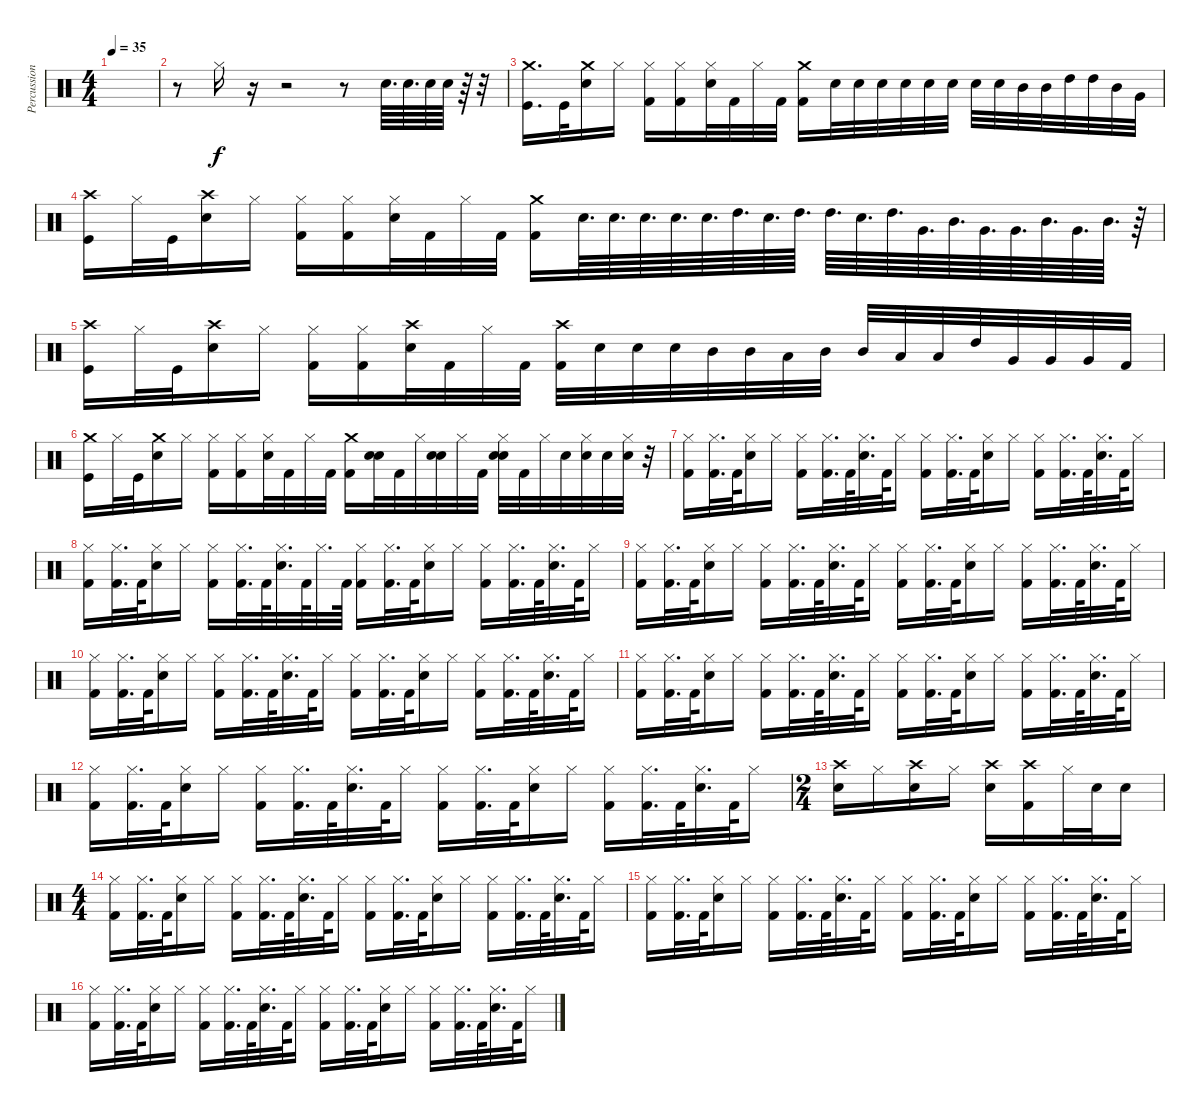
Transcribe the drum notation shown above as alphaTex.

\track ("Percussion" "Percussion") {instrument percussion}
\staff {score}
\articulation defaults
\ts (4 4)
\tempo 35
\clef neutral
\ks c
|
r.8 "Hi-Hat (closed)".16 r.16 r.2 r.8 "Snare (hit) 2".64{d} "Snare (hit) 2".64{d} "Snare (hit) 2".64 "Snare (hit) 2".64 r.64 r.32 |
("Crash medium (hit)" "Kick (hit)").16{d} "Kick (hit)".32 ("Crash medium (hit)" "Snare (hit) 2").16 "Hi-Hat (closed)".16 ("Hi-Hat (closed)" "Kick (hit) 2").16 ("Hi-Hat (closed)" "Kick (hit) 2").16 ("Hi-Hat (closed)" "Snare (hit) 2").32 "Kick (hit) 2".32 "Hi-Hat (closed)".32 "Kick (hit) 2".32 ("Crash medium (hit)" "Kick (hit) 2").16 "Snare (hit) 2".32 "Snare (hit) 2".32 "Snare (hit) 2".32 "Snare (hit) 2".32 "Snare (hit) 2".32 "Snare (hit) 2".32 "Snare (hit) 2".32 "Snare (hit) 2".32 "Mid Tom (hit)".32 "Mid Tom (hit)".32 "High Tom (hit)".32 "High Tom (hit)".32 "Mid Tom (hit)".32 "Very Low Tom (hit)".32 |
("Crash high (hit)" "Kick (hit)").16 "Hi-Hat (closed)".32 "Kick (hit)".32 ("Crash high (hit)" "Snare (hit) 2").16 "Hi-Hat (closed)".16 ("Hi-Hat (closed)" "Kick (hit) 2").16 ("Hi-Hat (closed)" "Kick (hit) 2").16 ("Hi-Hat (closed)" "Snare (hit) 2").32 "Kick (hit) 2".32 "Hi-Hat (closed)".32 "Kick (hit) 2".32 ("Crash medium (hit)" "Kick (hit) 2").16 "Snare (hit) 2".64{d} "Snare (hit) 2".64{d} "Snare (hit) 2".64{d} "Snare (hit) 2".64{d} "Snare (hit) 2".64{d} "High Tom (hit)".64{d} "Snare (hit) 2".64{d} "High Tom (hit)".64{d} "High Tom (hit)".64{d} "Snare (hit) 2".64{d} "High Tom (hit)".64{d} "Very Low Tom (hit)".64{d} "Mid Tom (hit)".64{d} "Very Low Tom (hit)".64{d} "Very Low Tom (hit)".64{d} "Mid Tom (hit)".64{d} "Very Low Tom (hit)".64{d} "Mid Tom (hit)".64{d} r.64 |
("Crash high (hit)" "Kick (hit)").16 "Hi-Hat (closed)".32 "Kick (hit)".32 ("Crash high (hit)" "Snare (hit) 2").16 "Hi-Hat (closed)".16 ("Hi-Hat (closed)" "Kick (hit) 2").16 ("Hi-Hat (closed)" "Kick (hit) 2").16 ("Crash high (hit)" "Snare (hit) 2").32 "Kick (hit) 2".32 "Hi-Hat (closed)".32 "Kick (hit) 2".32 ("Crash high (hit)" "Kick (hit) 2").32 "Snare (hit) 2".32 "Snare (hit) 2".32 "Snare (hit) 2".32 "Mid Tom (hit)".32 "Mid Tom (hit)".32 "Low Tom (hit)".32 "Mid Tom (hit)".32 "Mid Tom (hit)".32 "Low Tom (hit)".32 "Low Tom (hit)".32 "High Tom (hit)".32 "Very Low Tom (hit)".32 "Very Low Tom (hit)".32 "Very Low Tom (hit)".32 "Kick (hit) 2".32 |
("Crash medium (hit)" "Kick (hit)").16 "Hi-Hat (closed)".32 "Kick (hit)".32 ("Crash medium (hit)" "Snare (hit) 2").16 "Hi-Hat (closed)".16 ("Hi-Hat (closed)" "Kick (hit) 2").16 ("Hi-Hat (closed)" "Kick (hit) 2").16 ("Hi-Hat (closed)" "Snare (hit) 2").32 "Kick (hit) 2".32 "Hi-Hat (closed)".32 "Kick (hit) 2".32 ("Crash medium (hit)" "Kick (hit) 2").16 ("Snare (hit) 2" "Electric Snare (hit)").32 "Kick (hit) 2".32 "Hi-Hat (closed)".32 ("Snare (hit) 2" "Electric Snare (hit)").32 "Hi-Hat (closed)".32 "Kick (hit) 2".32 ("Hi-Hat (closed)" "Snare (hit) 2" "Electric Snare (hit)").32 "Kick (hit) 2".32 "Hi-Hat (closed)".32 "Snare (hit) 2".32 ("Hi-Hat (closed)" "Snare (hit) 2").32 "Snare (hit) 2".32 ("Hi-Hat (closed)" "Snare (hit) 2").32 r.32 |
("Hi-Hat (closed)" "Kick (hit) 2").16 ("Hi-Hat (closed)" "Kick (hit) 2").32{d} "Kick (hit) 2".64 ("Hi-Hat (closed)" "Snare (hit) 2").16 "Hi-Hat (closed)".16 ("Hi-Hat (closed)" "Kick (hit) 2").16 ("Hi-Hat (closed)" "Kick (hit) 2").32{d} "Kick (hit) 2".64 ("Hi-Hat (closed)" "Snare (hit) 2").32{d} "Kick (hit) 2".64 "Hi-Hat (closed)".16 ("Hi-Hat (closed)" "Kick (hit) 2").16 ("Hi-Hat (closed)" "Kick (hit) 2").32{d} "Kick (hit) 2".64 ("Hi-Hat (closed)" "Snare (hit) 2").16 "Hi-Hat (closed)".16 ("Hi-Hat (closed)" "Kick (hit) 2").16 ("Hi-Hat (closed)" "Kick (hit) 2").32{d} "Kick (hit) 2".64 ("Hi-Hat (closed)" "Snare (hit) 2").32{d} "Kick (hit) 2".64 "Hi-Hat (closed)".16 |
("Hi-Hat (closed)" "Kick (hit) 2").16 ("Hi-Hat (closed)" "Kick (hit) 2").32{d} "Kick (hit) 2".64 ("Hi-Hat (closed)" "Snare (hit) 2").16 "Hi-Hat (closed)".16 ("Hi-Hat (closed)" "Kick (hit) 2").16 ("Hi-Hat (closed)" "Kick (hit) 2").32{d} "Kick (hit) 2".64 ("Hi-Hat (closed)" "Snare (hit) 2").32{d} "Kick (hit) 2".64 "Hi-Hat (closed)".32{d} "Kick (hit) 2".64 ("Hi-Hat (closed)" "Kick (hit) 2").16 ("Hi-Hat (closed)" "Kick (hit) 2").32{d} "Kick (hit) 2".64 ("Hi-Hat (closed)" "Snare (hit) 2").16 "Hi-Hat (closed)".16 ("Hi-Hat (closed)" "Kick (hit) 2").16 ("Hi-Hat (closed)" "Kick (hit) 2").32{d} "Kick (hit) 2".64 ("Hi-Hat (closed)" "Snare (hit) 2").32{d} "Kick (hit) 2".64 "Hi-Hat (closed)".16 |
("Hi-Hat (closed)" "Kick (hit) 2").16 ("Hi-Hat (closed)" "Kick (hit) 2").32{d} "Kick (hit) 2".64 ("Hi-Hat (closed)" "Snare (hit) 2").16 "Hi-Hat (closed)".16 ("Hi-Hat (closed)" "Kick (hit) 2").16 ("Hi-Hat (closed)" "Kick (hit) 2").32{d} "Kick (hit) 2".64 ("Hi-Hat (closed)" "Snare (hit) 2").32{d} "Kick (hit) 2".64 "Hi-Hat (closed)".16 ("Hi-Hat (closed)" "Kick (hit) 2").16 ("Hi-Hat (closed)" "Kick (hit) 2").32{d} "Kick (hit) 2".64 ("Hi-Hat (closed)" "Snare (hit) 2").16 "Hi-Hat (closed)".16 ("Hi-Hat (closed)" "Kick (hit) 2").16 ("Hi-Hat (closed)" "Kick (hit) 2").32{d} "Kick (hit) 2".64 ("Hi-Hat (closed)" "Snare (hit) 2").32{d} "Kick (hit) 2".64 "Hi-Hat (closed)".16 |
("Hi-Hat (closed)" "Kick (hit) 2").16 ("Hi-Hat (closed)" "Kick (hit) 2").32{d} "Kick (hit) 2".64 ("Hi-Hat (closed)" "Snare (hit) 2").16 "Hi-Hat (closed)".16 ("Hi-Hat (closed)" "Kick (hit) 2").16 ("Hi-Hat (closed)" "Kick (hit) 2").32{d} "Kick (hit) 2".64 ("Hi-Hat (closed)" "Snare (hit) 2").32{d} "Kick (hit) 2".64 "Hi-Hat (closed)".16 ("Hi-Hat (closed)" "Kick (hit) 2").16 ("Hi-Hat (closed)" "Kick (hit) 2").32{d} "Kick (hit) 2".64 ("Hi-Hat (closed)" "Snare (hit) 2").16 "Hi-Hat (closed)".16 ("Hi-Hat (closed)" "Kick (hit) 2").16 ("Hi-Hat (closed)" "Kick (hit) 2").32{d} "Kick (hit) 2".64 ("Hi-Hat (closed)" "Snare (hit) 2").32{d} "Kick (hit) 2".64 "Hi-Hat (closed)".16 |
("Hi-Hat (closed)" "Kick (hit) 2").16 ("Hi-Hat (closed)" "Kick (hit) 2").32{d} "Kick (hit) 2".64 ("Hi-Hat (closed)" "Snare (hit) 2").16 "Hi-Hat (closed)".16 ("Hi-Hat (closed)" "Kick (hit) 2").16 ("Hi-Hat (closed)" "Kick (hit) 2").32{d} "Kick (hit) 2".64 ("Hi-Hat (closed)" "Snare (hit) 2").32{d} "Kick (hit) 2".64 "Hi-Hat (closed)".16 ("Hi-Hat (closed)" "Kick (hit) 2").16 ("Hi-Hat (closed)" "Kick (hit) 2").32{d} "Kick (hit) 2".64 ("Hi-Hat (closed)" "Snare (hit) 2").16 "Hi-Hat (closed)".16 ("Hi-Hat (closed)" "Kick (hit) 2").16 ("Hi-Hat (closed)" "Kick (hit) 2").32{d} "Kick (hit) 2".64 ("Hi-Hat (closed)" "Snare (hit) 2").32{d} "Kick (hit) 2".64 "Hi-Hat (closed)".16 |
("Hi-Hat (closed)" "Kick (hit) 2").16 ("Hi-Hat (closed)" "Kick (hit) 2").32{d} "Kick (hit) 2".64 ("Hi-Hat (closed)" "Snare (hit) 2").16 "Hi-Hat (closed)".16 ("Hi-Hat (closed)" "Kick (hit) 2").16 ("Hi-Hat (closed)" "Kick (hit) 2").32{d} "Kick (hit) 2".64 ("Hi-Hat (closed)" "Snare (hit) 2").32{d} "Kick (hit) 2".64 "Hi-Hat (closed)".16 ("Hi-Hat (closed)" "Kick (hit) 2").16 ("Hi-Hat (closed)" "Kick (hit) 2").32{d} "Kick (hit) 2".64 ("Hi-Hat (closed)" "Snare (hit) 2").16 "Hi-Hat (closed)".16 ("Hi-Hat (closed)" "Kick (hit) 2").16 ("Hi-Hat (closed)" "Kick (hit) 2").32{d} "Kick (hit) 2".64 ("Hi-Hat (closed)" "Snare (hit) 2").32{d} "Kick (hit) 2".64 "Hi-Hat (closed)".16 |
\ts (2 4)
("Crash high (hit)" "Snare (hit) 2").16 "Hi-Hat (closed)".16 ("Crash high (hit)" "Snare (hit) 2").16 "Hi-Hat (closed)".16 ("Crash high (hit)" "Snare (hit) 2").16 ("Crash high (hit)" "Kick (hit) 2").16 "Hi-Hat (closed)".32 "Snare (hit) 2".32 "Snare (hit) 2".16 |
\ts (4 4)
("Hi-Hat (closed)" "Kick (hit) 2").16 ("Hi-Hat (closed)" "Kick (hit) 2").32{d} "Kick (hit) 2".64 ("Hi-Hat (closed)" "Snare (hit) 2").16 "Hi-Hat (closed)".16 ("Hi-Hat (closed)" "Kick (hit) 2").16 ("Hi-Hat (closed)" "Kick (hit) 2").32{d} "Kick (hit) 2".64 ("Hi-Hat (closed)" "Snare (hit) 2").32{d} "Kick (hit) 2".64 "Hi-Hat (closed)".16 ("Hi-Hat (closed)" "Kick (hit) 2").16 ("Hi-Hat (closed)" "Kick (hit) 2").32{d} "Kick (hit) 2".64 ("Hi-Hat (closed)" "Snare (hit) 2").16 "Hi-Hat (closed)".16 ("Hi-Hat (closed)" "Kick (hit) 2").16 ("Hi-Hat (closed)" "Kick (hit) 2").32{d} "Kick (hit) 2".64 ("Hi-Hat (closed)" "Snare (hit) 2").32{d} "Kick (hit) 2".64 "Hi-Hat (closed)".16 |
("Hi-Hat (closed)" "Kick (hit) 2").16 ("Hi-Hat (closed)" "Kick (hit) 2").32{d} "Kick (hit) 2".64 ("Hi-Hat (closed)" "Snare (hit) 2").16 "Hi-Hat (closed)".16 ("Hi-Hat (closed)" "Kick (hit) 2").16 ("Hi-Hat (closed)" "Kick (hit) 2").32{d} "Kick (hit) 2".64 ("Hi-Hat (closed)" "Snare (hit) 2").32{d} "Kick (hit) 2".64 "Hi-Hat (closed)".16 ("Hi-Hat (closed)" "Kick (hit) 2").16 ("Hi-Hat (closed)" "Kick (hit) 2").32{d} "Kick (hit) 2".64 ("Hi-Hat (closed)" "Snare (hit) 2").16 "Hi-Hat (closed)".16 ("Hi-Hat (closed)" "Kick (hit) 2").16 ("Hi-Hat (closed)" "Kick (hit) 2").32{d} "Kick (hit) 2".64 ("Hi-Hat (closed)" "Snare (hit) 2").32{d} "Kick (hit) 2".64 "Hi-Hat (closed)".16 |
("Hi-Hat (closed)" "Kick (hit) 2").16 ("Hi-Hat (closed)" "Kick (hit) 2").32{d} "Kick (hit) 2".64 ("Hi-Hat (closed)" "Snare (hit) 2").16 "Hi-Hat (closed)".16 ("Hi-Hat (closed)" "Kick (hit) 2").16 ("Hi-Hat (closed)" "Kick (hit) 2").32{d} "Kick (hit) 2".64 ("Hi-Hat (closed)" "Snare (hit) 2").32{d} "Kick (hit) 2".64 "Hi-Hat (closed)".16 ("Hi-Hat (closed)" "Kick (hit) 2").16 ("Hi-Hat (closed)" "Kick (hit) 2").32{d} "Kick (hit) 2".64 ("Hi-Hat (closed)" "Snare (hit) 2").16 "Hi-Hat (closed)".16 ("Hi-Hat (closed)" "Kick (hit) 2").16 ("Hi-Hat (closed)" "Kick (hit) 2").32{d} "Kick (hit) 2".64 ("Hi-Hat (closed)" "Snare (hit) 2").32{d} "Kick (hit) 2".64 "Hi-Hat (closed)".16
